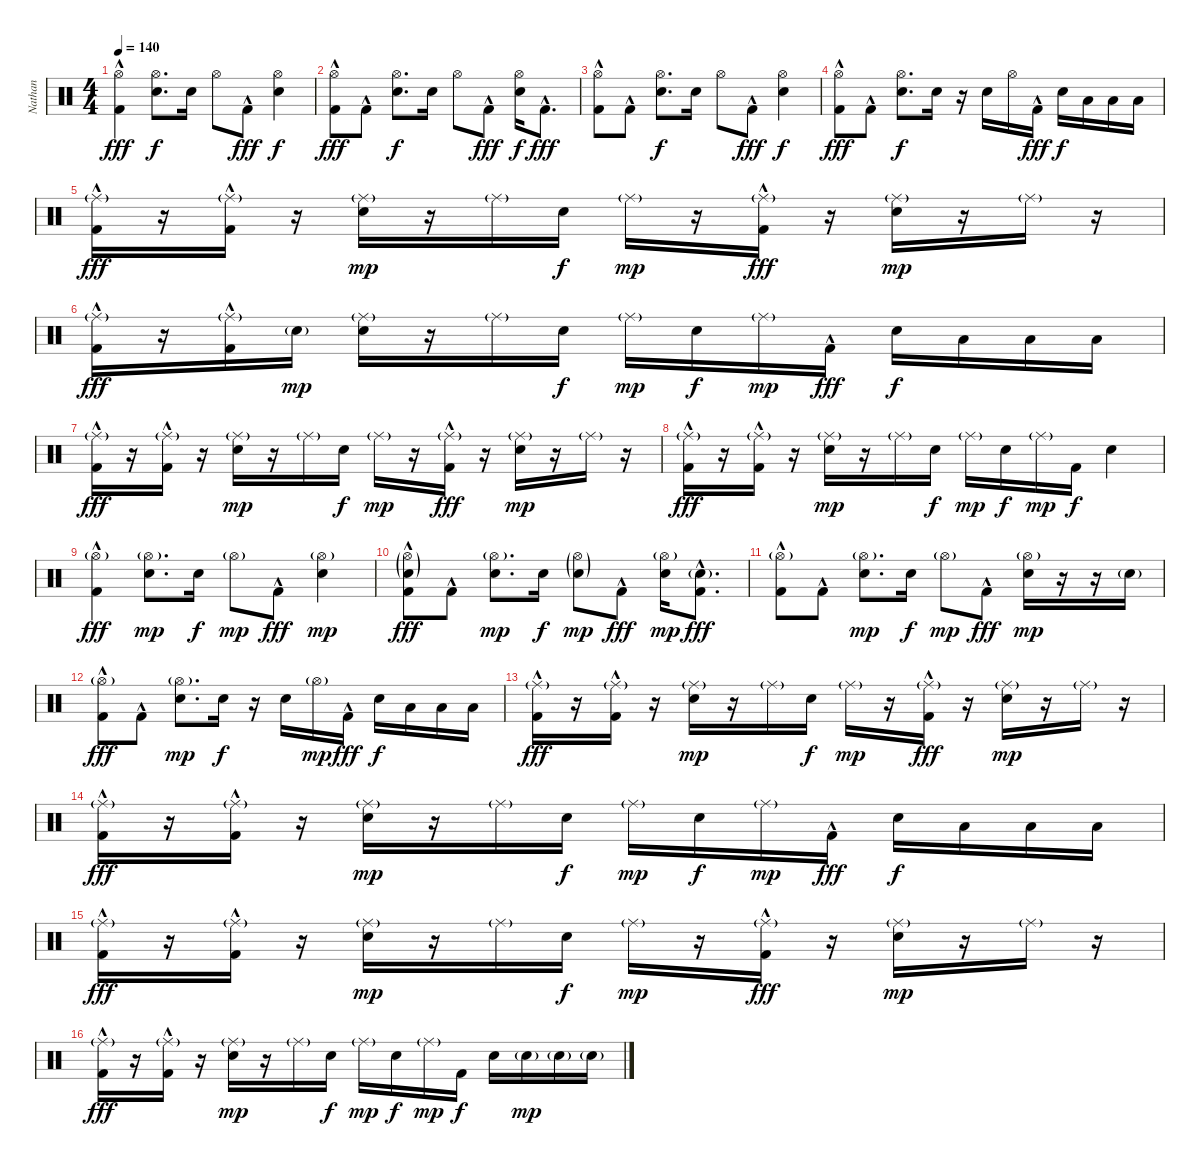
\track ("Nathan" "Nathan") {instrument percussion}
\staff {score}
\articulation defaults
\ts (4 4)
\tempo 140
\clef neutral
\ks c
("Hi-Hat (open)" "Kick (hit) 2"{hac}).4{dy fff} ("Hi-Hat (open)" "Snare (hit) 2").8{d dy f} "Snare (hit) 2".16 "Hi-Hat (open)".8 "Kick (hit) 2"{hac}.8{dy fff} ("Hi-Hat (open)" "Snare (hit) 2").4{dy f} |
("Hi-Hat (open)" "Kick (hit) 2"{hac}).8{dy fff} "Kick (hit) 2"{hac}.8 ("Hi-Hat (open)" "Snare (hit) 2").8{d dy f} "Snare (hit) 2".16 "Hi-Hat (open)".8 "Kick (hit) 2"{hac}.8{dy fff} ("Hi-Hat (open)" "Snare (hit) 2").16{dy f} "Kick (hit) 2"{hac}.8{d dy fff} |
("Hi-Hat (open)" "Kick (hit) 2"{hac}).8 "Kick (hit) 2"{hac}.8 ("Hi-Hat (open)" "Snare (hit) 2").8{d dy f} "Snare (hit) 2".16 "Hi-Hat (open)".8 "Kick (hit) 2"{hac}.8{dy fff} ("Hi-Hat (open)" "Snare (hit) 2").4{dy f} |
("Hi-Hat (open)" "Kick (hit) 2"{hac}).8{dy fff} "Kick (hit) 2"{hac}.8 ("Hi-Hat (open)" "Snare (hit) 2").8{d dy f} "Snare (hit) 2".16 r.16 "Snare (hit) 2".16 "Hi-Hat (open)".16 "Kick (hit) 2"{hac}.16{dy fff} "Snare (hit) 2".16{dy f} "Low Tom (hit)".16 "Low Tom (hit)".16 "Low Tom (hit)".16 |
("Ride (middle)"{g} "Kick (hit) 2"{hac}).16{dy fff} r.16 ("Ride (middle)"{g} "Kick (hit) 2"{hac}).16 r.16 ("Ride (middle)"{g} "Snare (hit) 2").16{dy mp} r.16 "Ride (middle)"{g}.16 "Snare (hit) 2".16{dy f} "Ride (middle)"{g}.16{dy mp} r.16 ("Ride (middle)"{g} "Kick (hit) 2"{hac}).16{dy fff} r.16 ("Ride (middle)"{g} "Snare (hit) 2").16{dy mp} r.16 "Ride (middle)"{g}.16 r.16 |
("Ride (middle)"{g} "Kick (hit) 2"{hac}).16{dy fff} r.16 ("Ride (middle)"{g} "Kick (hit) 2"{hac}).16 "Snare (hit) 2"{g}.16{dy mp} ("Ride (middle)"{g} "Snare (hit) 2").16 r.16 "Ride (middle)"{g}.16 "Snare (hit) 2".16{dy f} "Ride (middle)"{g}.16{dy mp} "Snare (hit) 2".16{dy f} "Ride (middle)"{g}.16{dy mp} "Kick (hit) 2"{hac}.16{dy fff} "Snare (hit) 2".16{dy f} "Low Tom (hit)".16 "Low Tom (hit)".16 "Low Tom (hit)".16 |
("Ride (middle)"{g} "Kick (hit) 2"{hac}).16{dy fff} r.16 ("Ride (middle)"{g} "Kick (hit) 2"{hac}).16 r.16 ("Ride (middle)"{g} "Snare (hit) 2").16{dy mp} r.16 "Ride (middle)"{g}.16 "Snare (hit) 2".16{dy f} "Ride (middle)"{g}.16{dy mp} r.16 ("Ride (middle)"{g} "Kick (hit) 2"{hac}).16{dy fff} r.16 ("Ride (middle)"{g} "Snare (hit) 2").16{dy mp} r.16 "Ride (middle)"{g}.16 r.16 |
("Ride (middle)"{g} "Kick (hit) 2"{hac}).16{dy fff} r.16 ("Ride (middle)"{g} "Kick (hit) 2"{hac}).16 r.16 ("Ride (middle)"{g} "Snare (hit) 2").16{dy mp} r.16 "Ride (middle)"{g}.16 "Snare (hit) 2".16{dy f} "Ride (middle)"{g}.16{dy mp} "Snare (hit) 2".16{dy f} "Ride (middle)"{g}.16{dy mp} "Kick (hit) 2".16{dy f} "Snare (hit) 2".4 |
("Hi-Hat (open)"{g} "Kick (hit) 2"{hac}).4{dy fff} ("Hi-Hat (open)"{g} "Snare (hit) 2").8{d dy mp} "Snare (hit) 2".16{dy f} "Hi-Hat (open)"{g}.8{dy mp} "Kick (hit) 2"{hac}.8{dy fff} ("Hi-Hat (open)"{g} "Snare (hit) 2").4{dy mp} |
("Hi-Hat (open)"{g} "Snare (hit) 2"{g} "Kick (hit) 2"{hac}).8{dy fff} "Kick (hit) 2"{hac}.8 ("Hi-Hat (open)"{g} "Snare (hit) 2").8{d dy mp} "Snare (hit) 2".16{dy f} ("Hi-Hat (open)"{g} "Snare (hit) 2"{g}).8{dy mp} "Kick (hit) 2"{hac}.8{dy fff} ("Hi-Hat (open)"{g} "Snare (hit) 2").16{dy mp} ("Snare (hit) 2"{g} "Kick (hit) 2"{hac}).8{d dy fff} |
("Hi-Hat (open)"{g} "Kick (hit) 2"{hac}).8 "Kick (hit) 2"{hac}.8 ("Hi-Hat (open)"{g} "Snare (hit) 2").8{d dy mp} "Snare (hit) 2".16{dy f} "Hi-Hat (open)"{g}.8{dy mp} "Kick (hit) 2"{hac}.8{dy fff} ("Hi-Hat (open)"{g} "Snare (hit) 2").16{dy mp} r.16 r.16 "Snare (hit) 2"{g}.16 |
("Hi-Hat (open)"{g} "Kick (hit) 2"{hac}).8{dy fff} "Kick (hit) 2"{hac}.8 ("Hi-Hat (open)"{g} "Snare (hit) 2").8{d dy mp} "Snare (hit) 2".16{dy f} r.16 "Snare (hit) 2".16 "Hi-Hat (open)"{g}.16{dy mp} "Kick (hit) 2"{hac}.16{dy fff} "Snare (hit) 2".16{dy f} "Low Tom (hit)".16 "Low Tom (hit)".16 "Low Tom (hit)".16 |
("Ride (middle)"{g} "Kick (hit) 2"{hac}).16{dy fff} r.16 ("Ride (middle)"{g} "Kick (hit) 2"{hac}).16 r.16 ("Ride (middle)"{g} "Snare (hit) 2").16{dy mp} r.16 "Ride (middle)"{g}.16 "Snare (hit) 2".16{dy f} "Ride (middle)"{g}.16{dy mp} r.16 ("Ride (middle)"{g} "Kick (hit) 2"{hac}).16{dy fff} r.16 ("Ride (middle)"{g} "Snare (hit) 2").16{dy mp} r.16 "Ride (middle)"{g}.16 r.16 |
("Ride (middle)"{g} "Kick (hit) 2"{hac}).16{dy fff} r.16 ("Ride (middle)"{g} "Kick (hit) 2"{hac}).16 r.16 ("Ride (middle)"{g} "Snare (hit) 2").16{dy mp} r.16 "Ride (middle)"{g}.16 "Snare (hit) 2".16{dy f} "Ride (middle)"{g}.16{dy mp} "Snare (hit) 2".16{dy f} "Ride (middle)"{g}.16{dy mp} "Kick (hit) 2"{hac}.16{dy fff} "Snare (hit) 2".16{dy f} "Low Tom (hit)".16 "Low Tom (hit)".16 "Low Tom (hit)".16 |
("Ride (middle)"{g} "Kick (hit) 2"{hac}).16{dy fff} r.16 ("Ride (middle)"{g} "Kick (hit) 2"{hac}).16 r.16 ("Ride (middle)"{g} "Snare (hit) 2").16{dy mp} r.16 "Ride (middle)"{g}.16 "Snare (hit) 2".16{dy f} "Ride (middle)"{g}.16{dy mp} r.16 ("Ride (middle)"{g} "Kick (hit) 2"{hac}).16{dy fff} r.16 ("Ride (middle)"{g} "Snare (hit) 2").16{dy mp} r.16 "Ride (middle)"{g}.16 r.16 |
("Ride (middle)"{g} "Kick (hit) 2"{hac}).16{dy fff} r.16 ("Ride (middle)"{g} "Kick (hit) 2"{hac}).16 r.16 ("Ride (middle)"{g} "Snare (hit) 2").16{dy mp} r.16 "Ride (middle)"{g}.16 "Snare (hit) 2".16{dy f} "Ride (middle)"{g}.16{dy mp} "Snare (hit) 2".16{dy f} "Ride (middle)"{g}.16{dy mp} "Kick (hit) 2".16{dy f} "Snare (hit) 2".16 "Snare (hit) 2"{g}.16{dy mp} "Snare (hit) 2"{g}.16 "Snare (hit) 2"{g}.16
